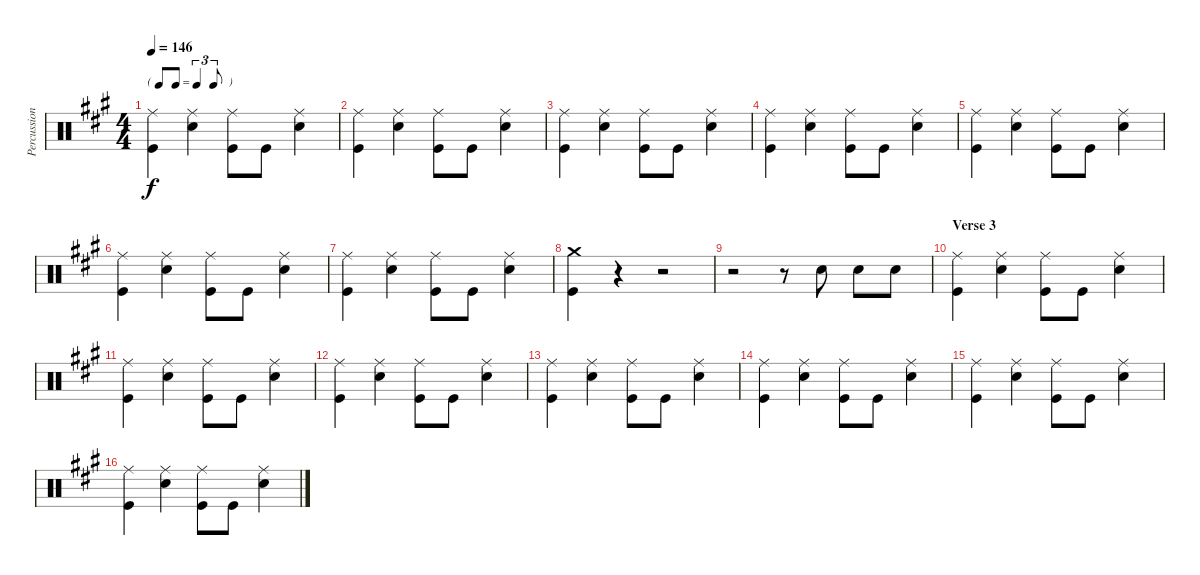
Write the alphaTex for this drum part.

\track ("Percussion" "Percussion") {instrument percussion}
\staff {score}
\articulation defaults
\ts (4 4)
\tf triplet8th
\tempo 146
\clef neutral
\ks a
("Ride (middle)" "Kick (hit)").4{dy f} ("Ride (middle)" "Snare (hit) 2").4 ("Ride (middle)" "Kick (hit)").8 "Kick (hit)".8 ("Ride (middle)" "Snare (hit) 2").4 |
("Ride (middle)" "Kick (hit)").4 ("Ride (middle)" "Snare (hit) 2").4 ("Ride (middle)" "Kick (hit)").8 "Kick (hit)".8 ("Ride (middle)" "Snare (hit) 2").4 |
("Ride (middle)" "Kick (hit)").4 ("Ride (middle)" "Snare (hit) 2").4 ("Ride (middle)" "Kick (hit)").8 "Kick (hit)".8 ("Ride (middle)" "Snare (hit) 2").4 |
("Ride (middle)" "Kick (hit)").4 ("Ride (middle)" "Snare (hit) 2").4 ("Ride (middle)" "Kick (hit)").8 "Kick (hit)".8 ("Ride (middle)" "Snare (hit) 2").4 |
("Ride (middle)" "Kick (hit)").4 ("Ride (middle)" "Snare (hit) 2").4 ("Ride (middle)" "Kick (hit)").8 "Kick (hit)".8 ("Ride (middle)" "Snare (hit) 2").4 |
("Ride (middle)" "Kick (hit)").4 ("Ride (middle)" "Snare (hit) 2").4 ("Ride (middle)" "Kick (hit)").8 "Kick (hit)".8 ("Ride (middle)" "Snare (hit) 2").4 |
("Ride (middle)" "Kick (hit)").4 ("Ride (middle)" "Snare (hit) 2").4 ("Ride (middle)" "Kick (hit)").8 "Kick (hit)".8 ("Ride (middle)" "Snare (hit) 2").4 |
("Crash medium (hit)" "Kick (hit)").4 r.4 r.2 |
r.2 r.8 "Snare (hit) 2".8 "Snare (hit) 2".8 "Snare (hit) 2".8 |
\section ("" "Verse 3")
("Ride (middle)" "Kick (hit)").4 ("Ride (middle)" "Snare (hit) 2").4 ("Ride (middle)" "Kick (hit)").8 "Kick (hit)".8 ("Ride (middle)" "Snare (hit) 2").4 |
("Ride (middle)" "Kick (hit)").4 ("Ride (middle)" "Snare (hit) 2").4 ("Ride (middle)" "Kick (hit)").8 "Kick (hit)".8 ("Ride (middle)" "Snare (hit) 2").4 |
("Ride (middle)" "Kick (hit)").4 ("Ride (middle)" "Snare (hit) 2").4 ("Ride (middle)" "Kick (hit)").8 "Kick (hit)".8 ("Ride (middle)" "Snare (hit) 2").4 |
("Ride (middle)" "Kick (hit)").4 ("Ride (middle)" "Snare (hit) 2").4 ("Ride (middle)" "Kick (hit)").8 "Kick (hit)".8 ("Ride (middle)" "Snare (hit) 2").4 |
("Ride (middle)" "Kick (hit)").4 ("Ride (middle)" "Snare (hit) 2").4 ("Ride (middle)" "Kick (hit)").8 "Kick (hit)".8 ("Ride (middle)" "Snare (hit) 2").4 |
("Ride (middle)" "Kick (hit)").4 ("Ride (middle)" "Snare (hit) 2").4 ("Ride (middle)" "Kick (hit)").8 "Kick (hit)".8 ("Ride (middle)" "Snare (hit) 2").4 |
("Ride (middle)" "Kick (hit)").4 ("Ride (middle)" "Snare (hit) 2").4 ("Ride (middle)" "Kick (hit)").8 "Kick (hit)".8 ("Ride (middle)" "Snare (hit) 2").4
